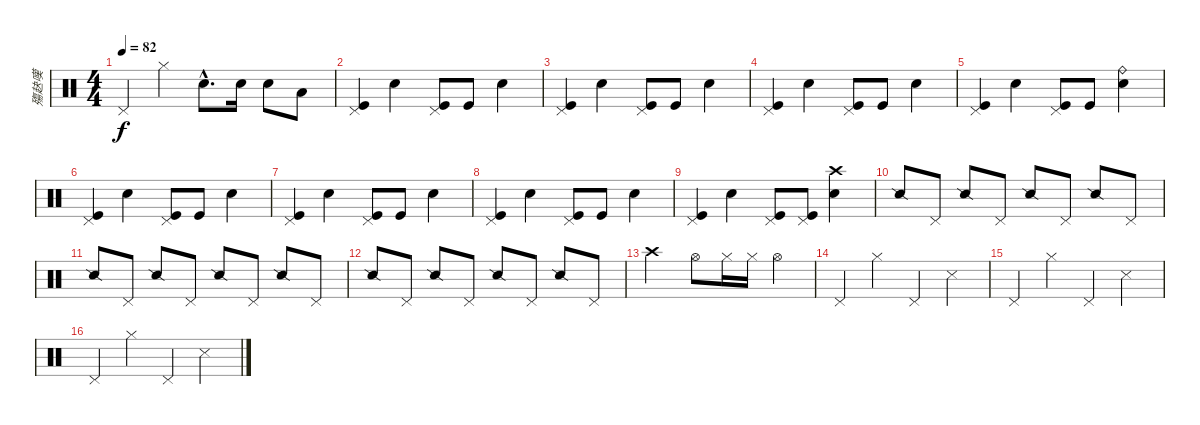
\track ("殤赽嘆" "殤赽嘆") {instrument percussion}
\staff {score}
\articulation defaults
\ts (4 4)
\tempo 82
\clef neutral
\ks c "Pedal Hi-Hat (hit)".4{dy f} "Hi-Hat (closed)".4 "Snare (hit) 2"{hac}.8{d} "Snare (hit) 2".16 "Snare (hit) 2".8 "Low Tom (hit)".8
|
("Pedal Hi-Hat (hit)" "Kick (hit)").4 "Snare (hit) 2".4 ("Pedal Hi-Hat (hit)" "Kick (hit)").8 "Kick (hit)".8 "Snare (hit) 2".4 |
("Pedal Hi-Hat (hit)" "Kick (hit)").4 "Snare (hit) 2".4 ("Pedal Hi-Hat (hit)" "Kick (hit)").8 "Kick (hit)".8 "Snare (hit) 2".4 |
("Pedal Hi-Hat (hit)" "Kick (hit)").4 "Snare (hit) 2".4 ("Pedal Hi-Hat (hit)" "Kick (hit)").8 "Kick (hit)".8 "Snare (hit) 2".4 |
("Pedal Hi-Hat (hit)" "Kick (hit)").4 "Snare (hit) 2".4 ("Pedal Hi-Hat (hit)" "Kick (hit)").8 "Kick (hit)".8 ("Ride (bell)" "Snare (hit) 2").4 |
("Pedal Hi-Hat (hit)" "Kick (hit)").4 "Snare (hit) 2".4 ("Pedal Hi-Hat (hit)" "Kick (hit)").8 "Kick (hit)".8 "Snare (hit) 2".4 |
("Pedal Hi-Hat (hit)" "Kick (hit)").4 "Snare (hit) 2".4 ("Pedal Hi-Hat (hit)" "Kick (hit)").8 "Kick (hit)".8 "Snare (hit) 2".4 |
("Pedal Hi-Hat (hit)" "Kick (hit)").4 "Snare (hit) 2".4 ("Pedal Hi-Hat (hit)" "Kick (hit)").8 "Kick (hit)".8 "Snare (hit) 2".4 |
("Pedal Hi-Hat (hit)" "Kick (hit)").4 "Snare (hit) 2".4 ("Pedal Hi-Hat (hit)" "Kick (hit)").8 ("Pedal Hi-Hat (hit)" "Kick (hit)").8 ("Snare (hit) 2" "Crash high (hit)").4 |
"Snare (side stick) 2".8 "Pedal Hi-Hat (hit)".8 "Snare (side stick) 2".8 "Pedal Hi-Hat (hit)".8 "Snare (side stick) 2".8 "Pedal Hi-Hat (hit)".8 "Snare (side stick) 2".8 "Pedal Hi-Hat (hit)".8 |
"Snare (side stick) 2".8 "Pedal Hi-Hat (hit)".8 "Snare (side stick) 2".8 "Pedal Hi-Hat (hit)".8 "Snare (side stick) 2".8 "Pedal Hi-Hat (hit)".8 "Snare (side stick) 2".8 "Pedal Hi-Hat (hit)".8 |
"Snare (side stick) 2".8 "Pedal Hi-Hat (hit)".8 "Snare (side stick) 2".8 "Pedal Hi-Hat (hit)".8 "Snare (side stick) 2".8 "Pedal Hi-Hat (hit)".8 "Snare (side stick) 2".8 "Pedal Hi-Hat (hit)".8 |
"Crash high (hit)".2 "Hi-Hat (open)".8 "Hi-Hat (closed)".16 "Hi-Hat (closed)".16 "Hi-Hat (open)".4 |
"Pedal Hi-Hat (hit)".4 "Hi-Hat (closed)".4 "Pedal Hi-Hat (hit)".4 "Snare (side stick) 3".4 |
"Pedal Hi-Hat (hit)".4 "Hi-Hat (closed)".4 "Pedal Hi-Hat (hit)".4 "Snare (side stick) 3".4 |
"Pedal Hi-Hat (hit)".4 "Hi-Hat (closed)".4 "Pedal Hi-Hat (hit)".4 "Snare (side stick) 3".4
